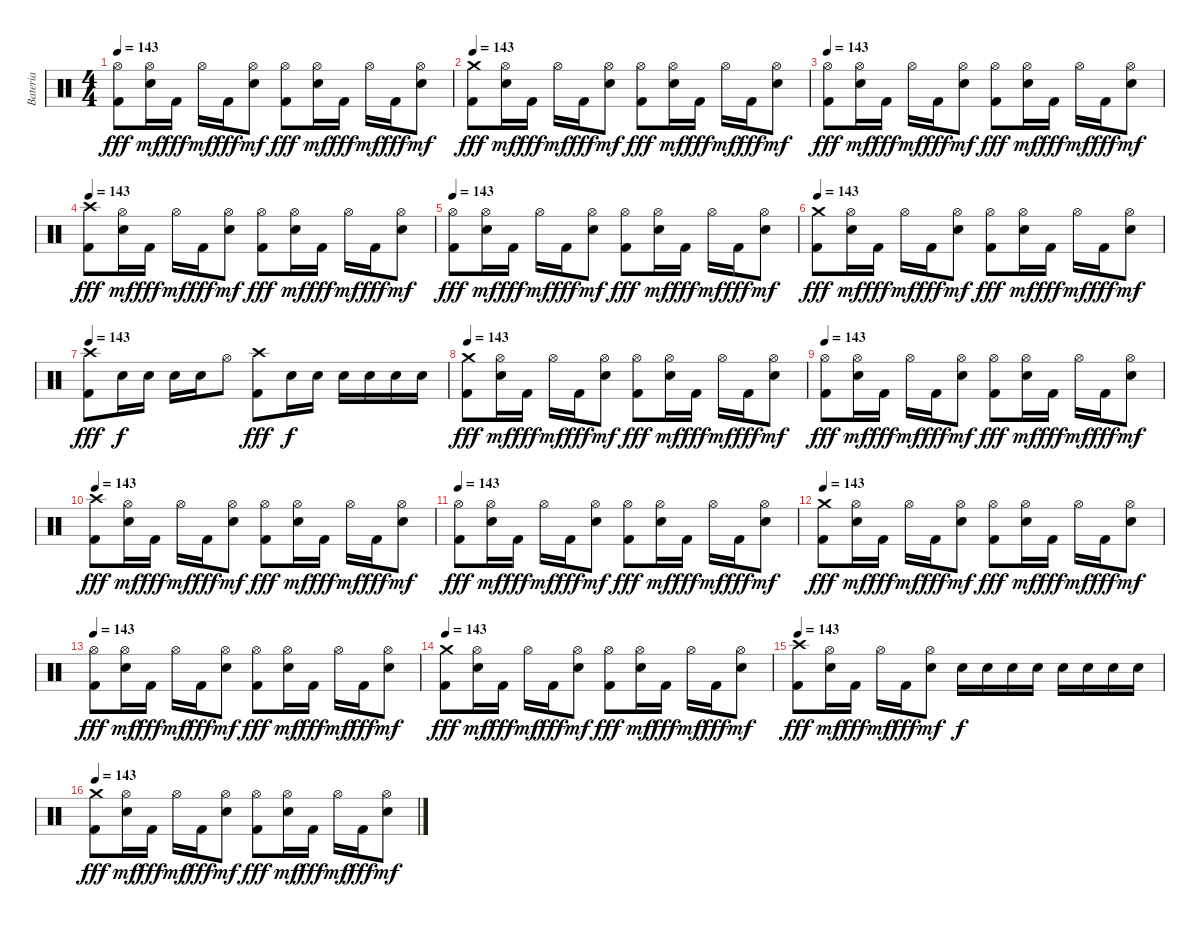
\track ("Bateria" "Bateria") {instrument percussion}
\staff {score}
\articulation defaults
\ts (4 4)
\tempo 143
\clef neutral
\ks c
("Hi-Hat (open)" "Kick (hit) 2").8{dy fff} ("Hi-Hat (open)" "Electric Snare (hit)").16{dy mf} "Kick (hit) 2".16{dy fff} "Hi-Hat (open)".16{dy mf} "Kick (hit) 2".16{dy fff} ("Hi-Hat (open)" "Electric Snare (hit)").8{dy mf} ("Hi-Hat (open)" "Kick (hit) 2").8{dy fff} ("Hi-Hat (open)" "Electric Snare (hit)").16{dy mf} "Kick (hit) 2".16{dy fff} "Hi-Hat (open)".16{dy mf} "Kick (hit) 2".16{dy fff} ("Hi-Hat (open)" "Electric Snare (hit)").8{dy mf} |
\tempo 143
("Crash medium (hit)" "Kick (hit) 2").8{dy fff} ("Hi-Hat (open)" "Electric Snare (hit)").16{dy mf} "Kick (hit) 2".16{dy fff} "Hi-Hat (open)".16{dy mf} "Kick (hit) 2".16{dy fff} ("Hi-Hat (open)" "Electric Snare (hit)").8{dy mf} ("Hi-Hat (open)" "Kick (hit) 2").8{dy fff} ("Hi-Hat (open)" "Electric Snare (hit)").16{dy mf} "Kick (hit) 2".16{dy fff} "Hi-Hat (open)".16{dy mf} "Kick (hit) 2".16{dy fff} ("Hi-Hat (open)" "Electric Snare (hit)").8{dy mf} |
\tempo 143
("Hi-Hat (open)" "Kick (hit) 2").8{dy fff} ("Hi-Hat (open)" "Electric Snare (hit)").16{dy mf} "Kick (hit) 2".16{dy fff} "Hi-Hat (open)".16{dy mf} "Kick (hit) 2".16{dy fff} ("Hi-Hat (open)" "Electric Snare (hit)").8{dy mf} ("Hi-Hat (open)" "Kick (hit) 2").8{dy fff} ("Hi-Hat (open)" "Electric Snare (hit)").16{dy mf} "Kick (hit) 2".16{dy fff} "Hi-Hat (open)".16{dy mf} "Kick (hit) 2".16{dy fff} ("Hi-Hat (open)" "Electric Snare (hit)").8{dy mf} |
\tempo 143
("Crash high (hit)" "Kick (hit) 2").8{dy fff} ("Hi-Hat (open)" "Electric Snare (hit)").16{dy mf} "Kick (hit) 2".16{dy fff} "Hi-Hat (open)".16{dy mf} "Kick (hit) 2".16{dy fff} ("Hi-Hat (open)" "Electric Snare (hit)").8{dy mf} ("Hi-Hat (open)" "Kick (hit) 2").8{dy fff} ("Hi-Hat (open)" "Electric Snare (hit)").16{dy mf} "Kick (hit) 2".16{dy fff} "Hi-Hat (open)".16{dy mf} "Kick (hit) 2".16{dy fff} ("Hi-Hat (open)" "Electric Snare (hit)").8{dy mf} |
\tempo 143
("Hi-Hat (open)" "Kick (hit) 2").8{dy fff} ("Hi-Hat (open)" "Electric Snare (hit)").16{dy mf} "Kick (hit) 2".16{dy fff} "Hi-Hat (open)".16{dy mf} "Kick (hit) 2".16{dy fff} ("Hi-Hat (open)" "Electric Snare (hit)").8{dy mf} ("Hi-Hat (open)" "Kick (hit) 2").8{dy fff} ("Hi-Hat (open)" "Electric Snare (hit)").16{dy mf} "Kick (hit) 2".16{dy fff} "Hi-Hat (open)".16{dy mf} "Kick (hit) 2".16{dy fff} ("Hi-Hat (open)" "Electric Snare (hit)").8{dy mf} |
\tempo 143
("Crash medium (hit)" "Kick (hit) 2").8{dy fff} ("Hi-Hat (open)" "Electric Snare (hit)").16{dy mf} "Kick (hit) 2".16{dy fff} "Hi-Hat (open)".16{dy mf} "Kick (hit) 2".16{dy fff} ("Hi-Hat (open)" "Electric Snare (hit)").8{dy mf} ("Hi-Hat (open)" "Kick (hit) 2").8{dy fff} ("Hi-Hat (open)" "Electric Snare (hit)").16{dy mf} "Kick (hit) 2".16{dy fff} "Hi-Hat (open)".16{dy mf} "Kick (hit) 2".16{dy fff} ("Hi-Hat (open)" "Electric Snare (hit)").8{dy mf} |
\tempo 143
("Crash high (hit)" "Kick (hit) 2").8{dy fff} "Electric Snare (hit)".16{dy f} "Electric Snare (hit)".16 "Electric Snare (hit)".16 "Electric Snare (hit)".16 "Hi-Hat (open)".8 ("Crash high (hit)" "Kick (hit) 2").8{dy fff} "Electric Snare (hit)".16{dy f} "Electric Snare (hit)".16 "Electric Snare (hit)".16 "Electric Snare (hit)".16 "Electric Snare (hit)".16 "Electric Snare (hit)".16 |
\tempo 143
("Crash medium (hit)" "Kick (hit) 2").8{dy fff} ("Hi-Hat (open)" "Electric Snare (hit)").16{dy mf} "Kick (hit) 2".16{dy fff} "Hi-Hat (open)".16{dy mf} "Kick (hit) 2".16{dy fff} ("Hi-Hat (open)" "Electric Snare (hit)").8{dy mf} ("Hi-Hat (open)" "Kick (hit) 2").8{dy fff} ("Hi-Hat (open)" "Electric Snare (hit)").16{dy mf} "Kick (hit) 2".16{dy fff} "Hi-Hat (open)".16{dy mf} "Kick (hit) 2".16{dy fff} ("Hi-Hat (open)" "Electric Snare (hit)").8{dy mf} |
\tempo 143
("Hi-Hat (open)" "Kick (hit) 2").8{dy fff} ("Hi-Hat (open)" "Electric Snare (hit)").16{dy mf} "Kick (hit) 2".16{dy fff} "Hi-Hat (open)".16{dy mf} "Kick (hit) 2".16{dy fff} ("Hi-Hat (open)" "Electric Snare (hit)").8{dy mf} ("Hi-Hat (open)" "Kick (hit) 2").8{dy fff} ("Hi-Hat (open)" "Electric Snare (hit)").16{dy mf} "Kick (hit) 2".16{dy fff} "Hi-Hat (open)".16{dy mf} "Kick (hit) 2".16{dy fff} ("Hi-Hat (open)" "Electric Snare (hit)").8{dy mf} |
\tempo 143
("Crash high (hit)" "Kick (hit) 2").8{dy fff} ("Hi-Hat (open)" "Electric Snare (hit)").16{dy mf} "Kick (hit) 2".16{dy fff} "Hi-Hat (open)".16{dy mf} "Kick (hit) 2".16{dy fff} ("Hi-Hat (open)" "Electric Snare (hit)").8{dy mf} ("Hi-Hat (open)" "Kick (hit) 2").8{dy fff} ("Hi-Hat (open)" "Electric Snare (hit)").16{dy mf} "Kick (hit) 2".16{dy fff} "Hi-Hat (open)".16{dy mf} "Kick (hit) 2".16{dy fff} ("Hi-Hat (open)" "Electric Snare (hit)").8{dy mf} |
\tempo 143
("Hi-Hat (open)" "Kick (hit) 2").8{dy fff} ("Hi-Hat (open)" "Electric Snare (hit)").16{dy mf} "Kick (hit) 2".16{dy fff} "Hi-Hat (open)".16{dy mf} "Kick (hit) 2".16{dy fff} ("Hi-Hat (open)" "Electric Snare (hit)").8{dy mf} ("Hi-Hat (open)" "Kick (hit) 2").8{dy fff} ("Hi-Hat (open)" "Electric Snare (hit)").16{dy mf} "Kick (hit) 2".16{dy fff} "Hi-Hat (open)".16{dy mf} "Kick (hit) 2".16{dy fff} ("Hi-Hat (open)" "Electric Snare (hit)").8{dy mf} |
\tempo 143
("Crash medium (hit)" "Kick (hit) 2").8{dy fff} ("Hi-Hat (open)" "Electric Snare (hit)").16{dy mf} "Kick (hit) 2".16{dy fff} "Hi-Hat (open)".16{dy mf} "Kick (hit) 2".16{dy fff} ("Hi-Hat (open)" "Electric Snare (hit)").8{dy mf} ("Hi-Hat (open)" "Kick (hit) 2").8{dy fff} ("Hi-Hat (open)" "Electric Snare (hit)").16{dy mf} "Kick (hit) 2".16{dy fff} "Hi-Hat (open)".16{dy mf} "Kick (hit) 2".16{dy fff} ("Hi-Hat (open)" "Electric Snare (hit)").8{dy mf} |
\tempo 143
("Hi-Hat (open)" "Kick (hit) 2").8{dy fff} ("Hi-Hat (open)" "Electric Snare (hit)").16{dy mf} "Kick (hit) 2".16{dy fff} "Hi-Hat (open)".16{dy mf} "Kick (hit) 2".16{dy fff} ("Hi-Hat (open)" "Electric Snare (hit)").8{dy mf} ("Hi-Hat (open)" "Kick (hit) 2").8{dy fff} ("Hi-Hat (open)" "Electric Snare (hit)").16{dy mf} "Kick (hit) 2".16{dy fff} "Hi-Hat (open)".16{dy mf} "Kick (hit) 2".16{dy fff} ("Hi-Hat (open)" "Electric Snare (hit)").8{dy mf} |
\tempo 143
("Crash medium (hit)" "Kick (hit) 2").8{dy fff} ("Hi-Hat (open)" "Electric Snare (hit)").16{dy mf} "Kick (hit) 2".16{dy fff} "Hi-Hat (open)".16{dy mf} "Kick (hit) 2".16{dy fff} ("Hi-Hat (open)" "Electric Snare (hit)").8{dy mf} ("Hi-Hat (open)" "Kick (hit) 2").8{dy fff} ("Hi-Hat (open)" "Electric Snare (hit)").16{dy mf} "Kick (hit) 2".16{dy fff} "Hi-Hat (open)".16{dy mf} "Kick (hit) 2".16{dy fff} ("Hi-Hat (open)" "Electric Snare (hit)").8{dy mf} |
\tempo 143
("Crash high (hit)" "Kick (hit) 2").8{dy fff} ("Hi-Hat (open)" "Electric Snare (hit)").16{dy mf} "Kick (hit) 2".16{dy fff} "Hi-Hat (open)".16{dy mf} "Kick (hit) 2".16{dy fff} ("Hi-Hat (open)" "Electric Snare (hit)").8{dy mf} "Electric Snare (hit)".16{dy f} "Electric Snare (hit)".16 "Electric Snare (hit)".16 "Electric Snare (hit)".16 "Electric Snare (hit)".16 "Electric Snare (hit)".16 "Electric Snare (hit)".16 "Electric Snare (hit)".16 |
\tempo 143
("Crash medium (hit)" "Kick (hit) 2").8{dy fff} ("Hi-Hat (open)" "Electric Snare (hit)").16{dy mf} "Kick (hit) 2".16{dy fff} "Hi-Hat (open)".16{dy mf} "Kick (hit) 2".16{dy fff} ("Hi-Hat (open)" "Electric Snare (hit)").8{dy mf} ("Hi-Hat (open)" "Kick (hit) 2").8{dy fff} ("Hi-Hat (open)" "Electric Snare (hit)").16{dy mf} "Kick (hit) 2".16{dy fff} "Hi-Hat (open)".16{dy mf} "Kick (hit) 2".16{dy fff} ("Hi-Hat (open)" "Electric Snare (hit)").8{dy mf}
